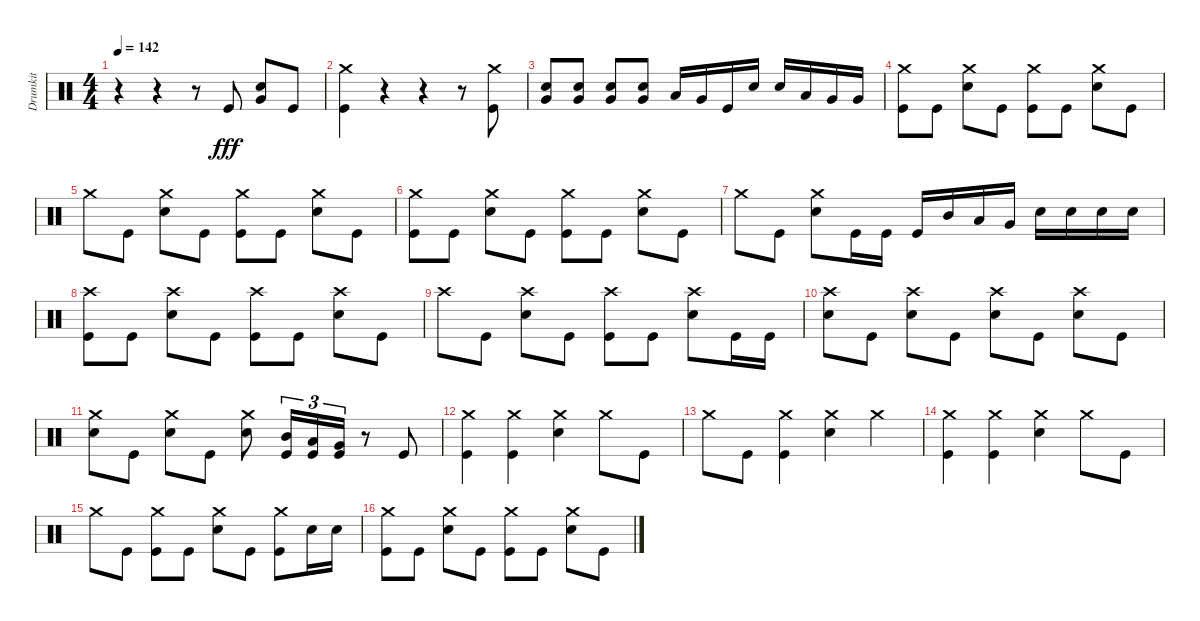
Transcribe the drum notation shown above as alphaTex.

\track ("Drumkit" "Drumkit") {instrument percussion}
\staff {score}
\articulation defaults
\ts (4 4)
\tempo 142
\clef neutral
\ks c
r.4{dy fff} r.4 r.8 "Kick (hit)".8 ("Snare (hit) 2" "Very Low Tom (hit)").8 "Kick (hit)".8 |
("Kick (hit)" "Crash medium (hit)").4 r.4 r.4 r.8 ("Kick (hit)" "Crash medium (hit)").8 |
("Snare (hit) 2" "Very Low Tom (hit)").8 ("Snare (hit) 2" "Very Low Tom (hit)").8 ("Very Low Tom (hit)" "Snare (hit) 2").8 ("Snare (hit) 2" "Very Low Tom (hit)").8 "Low Tom (hit)".16 "Very Low Tom (hit)".16 "Kick (hit)".16 "Snare (hit) 2".16 "Snare (hit) 2".16 "Low Tom (hit)".16 "Very Low Tom (hit)".16 "Very Low Tom (hit)".16 |
("Kick (hit)" "Crash medium (hit)").8 "Kick (hit)".8 ("Snare (hit) 2" "Crash medium (hit)").8 "Kick (hit)".8 ("Kick (hit)" "Crash medium (hit)").8 "Kick (hit)".8 ("Snare (hit) 2" "Crash medium (hit)").8 "Kick (hit)".8 |
"Crash medium (hit)".8 "Kick (hit)".8 ("Crash medium (hit)" "Snare (hit) 2").8 "Kick (hit)".8 ("Crash medium (hit)" "Kick (hit)").8 "Kick (hit)".8 ("Crash medium (hit)" "Snare (hit) 2").8 "Kick (hit)".8 |
("Kick (hit)" "Crash medium (hit)").8 "Kick (hit)".8 ("Snare (hit) 2" "Crash medium (hit)").8 "Kick (hit)".8 ("Kick (hit)" "Crash medium (hit)").8 "Kick (hit)".8 ("Snare (hit) 2" "Crash medium (hit)").8 "Kick (hit)".8 |
"Crash medium (hit)".8 "Kick (hit)".8 ("Crash medium (hit)" "Snare (hit) 2").8 "Kick (hit)".16 "Kick (hit)".16 "Kick (hit)".16 "Mid Tom (hit)".16 "Low Tom (hit)".16 "Very Low Tom (hit)".16 "Snare (hit) 2".16 "Snare (hit) 2".16 "Snare (hit) 2".16 "Snare (hit) 2".16 |
("Kick (hit)" "Crash high (hit)").8 "Kick (hit)".8 ("Snare (hit) 2" "Crash high (hit)").8 "Kick (hit)".8 ("Kick (hit)" "Crash high (hit)").8 "Kick (hit)".8 ("Snare (hit) 2" "Crash high (hit)").8 "Kick (hit)".8 |
"Crash high (hit)".8 "Kick (hit)".8 ("Snare (hit) 2" "Crash high (hit)").8 "Kick (hit)".8 ("Kick (hit)" "Crash high (hit)").8 "Kick (hit)".8 ("Snare (hit) 2" "Crash high (hit)").8 "Kick (hit)".16 "Kick (hit)".16 |
("Snare (hit) 2" "Crash high (hit)").8 "Kick (hit)".8 ("Snare (hit) 2" "Crash high (hit)").8 "Kick (hit)".8 ("Snare (hit) 2" "Crash high (hit)").8 "Kick (hit)".8 ("Snare (hit) 2" "Crash high (hit)").8 "Kick (hit)".8 |
("Crash medium (hit)" "Snare (hit) 2").8 "Kick (hit)".8 ("Crash medium (hit)" "Snare (hit) 2").8 "Kick (hit)".8 ("Crash medium (hit)" "Snare (hit) 2").8 ("Kick (hit)" "Mid Tom (hit)").16{tu (3 2)} ("Kick (hit)" "Low Tom (hit)").16{tu (3 2)} ("Kick (hit)" "Very Low Tom (hit)").16{tu (3 2)} r.8 "Kick (hit)".8 |
("Kick (hit)" "Crash medium (hit)").4 ("Kick (hit)" "Crash medium (hit)").4 ("Snare (hit) 2" "Crash medium (hit)").4 "Crash medium (hit)".8 "Kick (hit)".8 |
"Crash medium (hit)".8 "Kick (hit)".8 ("Kick (hit)" "Crash medium (hit)").4 ("Snare (hit) 2" "Crash medium (hit)").4 "Crash medium (hit)".4 |
("Kick (hit)" "Crash medium (hit)").4 ("Kick (hit)" "Crash medium (hit)").4 ("Snare (hit) 2" "Crash medium (hit)").4 "Crash medium (hit)".8 "Kick (hit)".8 |
"Crash medium (hit)".8 "Kick (hit)".8 ("Kick (hit)" "Crash medium (hit)").8 "Kick (hit)".8 ("Crash medium (hit)" "Snare (hit) 2").8 "Kick (hit)".8 ("Kick (hit)" "Crash medium (hit)").8 "Snare (hit) 2".16 "Snare (hit) 2".16 |
("Kick (hit)" "Crash medium (hit)").8 "Kick (hit)".8 ("Snare (hit) 2" "Crash medium (hit)").8 "Kick (hit)".8 ("Kick (hit)" "Crash medium (hit)").8 "Kick (hit)".8 ("Snare (hit) 2" "Crash medium (hit)").8 "Kick (hit)".8
